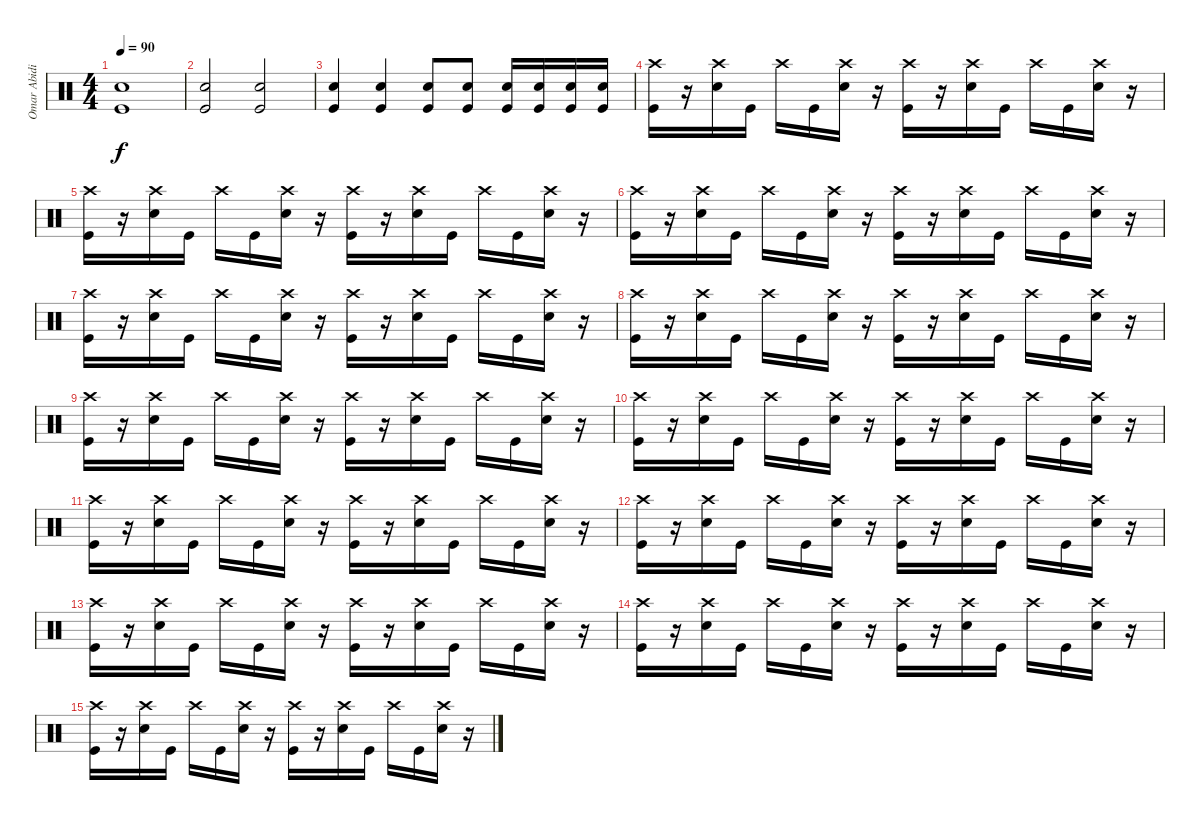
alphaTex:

\track ("Omar Abidi" "Omar Abidi") {instrument percussion}
\staff {score}
\articulation defaults
\ts (4 4)
\tempo 90
\clef neutral
\ks c
("Snare (hit) 2" "Kick (hit)").1{dy f} |
("Snare (hit) 2" "Kick (hit)").2 ("Snare (hit) 2" "Kick (hit)").2 |
("Snare (hit) 2" "Kick (hit)").4 ("Snare (hit) 2" "Kick (hit)").4 ("Snare (hit) 2" "Kick (hit)").8 ("Snare (hit) 2" "Kick (hit)").8 ("Snare (hit) 2" "Kick (hit)").16 ("Snare (hit) 2" "Kick (hit)").16 ("Snare (hit) 2" "Kick (hit)").16 ("Snare (hit) 2" "Kick (hit)").16 |
("Crash high (hit)" "Kick (hit)").16 r.16 ("Crash high (hit)" "Snare (hit) 2").16 "Kick (hit)".16 "Crash high (hit)".16 "Kick (hit)".16 ("Crash high (hit)" "Snare (hit) 2").16 r.16 ("Crash high (hit)" "Kick (hit)").16 r.16 ("Crash high (hit)" "Snare (hit) 2").16 "Kick (hit)".16 "Crash high (hit)".16 "Kick (hit)".16 ("Crash high (hit)" "Snare (hit) 2").16 r.16 |
("Crash high (hit)" "Kick (hit)").16 r.16 ("Crash high (hit)" "Snare (hit) 2").16 "Kick (hit)".16 "Crash high (hit)".16 "Kick (hit)".16 ("Crash high (hit)" "Snare (hit) 2").16 r.16 ("Crash high (hit)" "Kick (hit)").16 r.16 ("Crash high (hit)" "Snare (hit) 2").16 "Kick (hit)".16 "Crash high (hit)".16 "Kick (hit)".16 ("Crash high (hit)" "Snare (hit) 2").16 r.16 |
("Crash high (hit)" "Kick (hit)").16 r.16 ("Crash high (hit)" "Snare (hit) 2").16 "Kick (hit)".16 "Crash high (hit)".16 "Kick (hit)".16 ("Crash high (hit)" "Snare (hit) 2").16 r.16 ("Crash high (hit)" "Kick (hit)").16 r.16 ("Crash high (hit)" "Snare (hit) 2").16 "Kick (hit)".16 "Crash high (hit)".16 "Kick (hit)".16 ("Crash high (hit)" "Snare (hit) 2").16 r.16 |
("Crash high (hit)" "Kick (hit)").16 r.16 ("Crash high (hit)" "Snare (hit) 2").16 "Kick (hit)".16 "Crash high (hit)".16 "Kick (hit)".16 ("Crash high (hit)" "Snare (hit) 2").16 r.16 ("Crash high (hit)" "Kick (hit)").16 r.16 ("Crash high (hit)" "Snare (hit) 2").16 "Kick (hit)".16 "Crash high (hit)".16 "Kick (hit)".16 ("Crash high (hit)" "Snare (hit) 2").16 r.16 |
("Crash high (hit)" "Kick (hit)").16 r.16 ("Crash high (hit)" "Snare (hit) 2").16 "Kick (hit)".16 "Crash high (hit)".16 "Kick (hit)".16 ("Crash high (hit)" "Snare (hit) 2").16 r.16 ("Crash high (hit)" "Kick (hit)").16 r.16 ("Crash high (hit)" "Snare (hit) 2").16 "Kick (hit)".16 "Crash high (hit)".16 "Kick (hit)".16 ("Crash high (hit)" "Snare (hit) 2").16 r.16 |
("Crash high (hit)" "Kick (hit)").16 r.16 ("Crash high (hit)" "Snare (hit) 2").16 "Kick (hit)".16 "Crash high (hit)".16 "Kick (hit)".16 ("Crash high (hit)" "Snare (hit) 2").16 r.16 ("Crash high (hit)" "Kick (hit)").16 r.16 ("Crash high (hit)" "Snare (hit) 2").16 "Kick (hit)".16 "Crash high (hit)".16 "Kick (hit)".16 ("Crash high (hit)" "Snare (hit) 2").16 r.16 |
("Crash high (hit)" "Kick (hit)").16 r.16 ("Crash high (hit)" "Snare (hit) 2").16 "Kick (hit)".16 "Crash high (hit)".16 "Kick (hit)".16 ("Crash high (hit)" "Snare (hit) 2").16 r.16 ("Crash high (hit)" "Kick (hit)").16 r.16 ("Crash high (hit)" "Snare (hit) 2").16 "Kick (hit)".16 "Crash high (hit)".16 "Kick (hit)".16 ("Crash high (hit)" "Snare (hit) 2").16 r.16 |
("Crash high (hit)" "Kick (hit)").16 r.16 ("Crash high (hit)" "Snare (hit) 2").16 "Kick (hit)".16 "Crash high (hit)".16 "Kick (hit)".16 ("Crash high (hit)" "Snare (hit) 2").16 r.16 ("Crash high (hit)" "Kick (hit)").16 r.16 ("Crash high (hit)" "Snare (hit) 2").16 "Kick (hit)".16 "Crash high (hit)".16 "Kick (hit)".16 ("Crash high (hit)" "Snare (hit) 2").16 r.16 |
("Crash high (hit)" "Kick (hit)").16 r.16 ("Crash high (hit)" "Snare (hit) 2").16 "Kick (hit)".16 "Crash high (hit)".16 "Kick (hit)".16 ("Crash high (hit)" "Snare (hit) 2").16 r.16 ("Crash high (hit)" "Kick (hit)").16 r.16 ("Crash high (hit)" "Snare (hit) 2").16 "Kick (hit)".16 "Crash high (hit)".16 "Kick (hit)".16 ("Crash high (hit)" "Snare (hit) 2").16 r.16 |
("Crash high (hit)" "Kick (hit)").16 r.16 ("Crash high (hit)" "Snare (hit) 2").16 "Kick (hit)".16 "Crash high (hit)".16 "Kick (hit)".16 ("Crash high (hit)" "Snare (hit) 2").16 r.16 ("Crash high (hit)" "Kick (hit)").16 r.16 ("Crash high (hit)" "Snare (hit) 2").16 "Kick (hit)".16 "Crash high (hit)".16 "Kick (hit)".16 ("Crash high (hit)" "Snare (hit) 2").16 r.16 |
("Crash high (hit)" "Kick (hit)").16 r.16 ("Crash high (hit)" "Snare (hit) 2").16 "Kick (hit)".16 "Crash high (hit)".16 "Kick (hit)".16 ("Crash high (hit)" "Snare (hit) 2").16 r.16 ("Crash high (hit)" "Kick (hit)").16 r.16 ("Crash high (hit)" "Snare (hit) 2").16 "Kick (hit)".16 "Crash high (hit)".16 "Kick (hit)".16 ("Crash high (hit)" "Snare (hit) 2").16 r.16 |
("Crash high (hit)" "Kick (hit)").16 r.16 ("Crash high (hit)" "Snare (hit) 2").16 "Kick (hit)".16 "Crash high (hit)".16 "Kick (hit)".16 ("Crash high (hit)" "Snare (hit) 2").16 r.16 ("Crash high (hit)" "Kick (hit)").16 r.16 ("Crash high (hit)" "Snare (hit) 2").16 "Kick (hit)".16 "Crash high (hit)".16 "Kick (hit)".16 ("Crash high (hit)" "Snare (hit) 2").16 r.16
